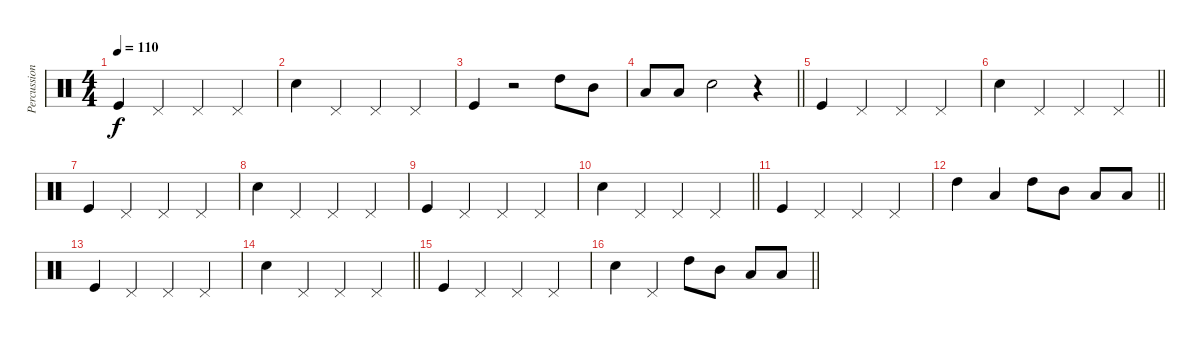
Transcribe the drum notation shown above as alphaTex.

\track ("Percussion" "Percussion") {instrument percussion}
\staff {score}
\articulation defaults
\ts (4 4)
\tempo 110
\clef neutral
\ks c "Kick (hit)".4{dy f} "Pedal Hi-Hat (hit)".4 "Pedal Hi-Hat (hit)".4 "Pedal Hi-Hat (hit)".4
|
"Electric Snare (hit)".4 "Pedal Hi-Hat (hit)".4 "Pedal Hi-Hat (hit)".4 "Pedal Hi-Hat (hit)".4 |
"Kick (hit)".4 r.2 "High Tom (hit)".8 "Mid Tom (hit)".8 |
\barLineRight lightlight "Low Tom (hit)".8 "Low Tom (hit)".8 "Snare (hit) 2".2
r.4 |
"Kick (hit)".4 "Pedal Hi-Hat (hit)".4 "Pedal Hi-Hat (hit)".4 "Pedal Hi-Hat (hit)".4 |
\barLineRight lightlight "Electric Snare (hit)".4 "Pedal Hi-Hat (hit)".4 "Pedal Hi-Hat (hit)".4 "Pedal Hi-Hat (hit)".4
|
"Kick (hit)".4 "Pedal Hi-Hat (hit)".4 "Pedal Hi-Hat (hit)".4 "Pedal Hi-Hat (hit)".4 |
"Electric Snare (hit)".4 "Pedal Hi-Hat (hit)".4 "Pedal Hi-Hat (hit)".4 "Pedal Hi-Hat (hit)".4 |
"Kick (hit)".4 "Pedal Hi-Hat (hit)".4 "Pedal Hi-Hat (hit)".4 "Pedal Hi-Hat (hit)".4 |
\barLineRight lightlight "Electric Snare (hit)".4 "Pedal Hi-Hat (hit)".4 "Pedal Hi-Hat (hit)".4 "Pedal Hi-Hat (hit)".4
|
"Kick (hit)".4 "Pedal Hi-Hat (hit)".4 "Pedal Hi-Hat (hit)".4 "Pedal Hi-Hat (hit)".4 |
\barLineRight lightlight "High Tom (hit)".4 "Low Tom (hit)".4 "High Tom (hit)".8 "Mid Tom (hit)".8 "Low Tom (hit)".8 "Low Tom (hit)".8
|
"Kick (hit)".4 "Pedal Hi-Hat (hit)".4 "Pedal Hi-Hat (hit)".4 "Pedal Hi-Hat (hit)".4 |
\barLineRight lightlight "Electric Snare (hit)".4 "Pedal Hi-Hat (hit)".4 "Pedal Hi-Hat (hit)".4 "Pedal Hi-Hat (hit)".4
|
"Kick (hit)".4 "Pedal Hi-Hat (hit)".4 "Pedal Hi-Hat (hit)".4 "Pedal Hi-Hat (hit)".4 |
\barLineRight lightlight "Electric Snare (hit)".4 "Pedal Hi-Hat (hit)".4 "High Tom (hit)".8 "Mid Tom (hit)".8 "Low Tom (hit)".8 "Low Tom (hit)".8
